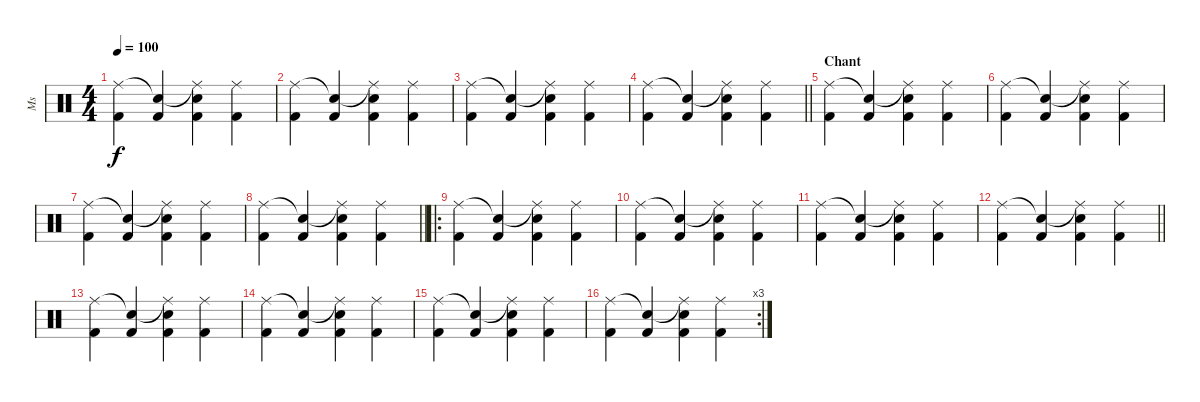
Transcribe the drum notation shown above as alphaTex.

\track ("Ms" "Ms") {instrument percussion}
\staff {score}
\articulation defaults
\ts (4 4)
\tempo 100
\clef neutral
\ks c
("Ride (middle)" "Kick (hit) 2").4{dy f} ("Snare (hit)"{t} "Kick (hit) 2").4 ("Ride (middle)"{t} "Electric Snare (hit)" "Kick (hit) 2").4 ("Ride (middle)" "Kick (hit) 2").4 |
("Ride (middle)" "Kick (hit) 2").4 ("Snare (hit)"{t} "Kick (hit) 2").4 ("Ride (middle)"{t} "Electric Snare (hit)" "Kick (hit) 2").4 ("Ride (middle)" "Kick (hit) 2").4 |
("Ride (middle)" "Kick (hit) 2").4 ("Snare (hit)"{t} "Kick (hit) 2").4 ("Ride (middle)"{t} "Electric Snare (hit)" "Kick (hit) 2").4 ("Ride (middle)" "Kick (hit) 2").4 |
\barLineRight lightlight
("Ride (middle)" "Kick (hit) 2").4 ("Snare (hit)"{t} "Kick (hit) 2").4 ("Ride (middle)"{t} "Electric Snare (hit)" "Kick (hit) 2").4 ("Ride (middle)" "Kick (hit) 2").4 |
\section ("" "Chant")
("Ride (middle)" "Kick (hit) 2").4 ("Snare (hit)"{t} "Kick (hit) 2").4 ("Ride (middle)"{t} "Electric Snare (hit)" "Kick (hit) 2").4 ("Ride (middle)" "Kick (hit) 2").4 |
("Ride (middle)" "Kick (hit) 2").4 ("Snare (hit)"{t} "Kick (hit) 2").4 ("Ride (middle)"{t} "Electric Snare (hit)" "Kick (hit) 2").4 ("Ride (middle)" "Kick (hit) 2").4 |
("Ride (middle)" "Kick (hit) 2").4 ("Snare (hit)"{t} "Kick (hit) 2").4 ("Ride (middle)"{t} "Electric Snare (hit)" "Kick (hit) 2").4 ("Ride (middle)" "Kick (hit) 2").4 |
\barLineRight lightlight
("Ride (middle)" "Kick (hit) 2").4 ("Snare (hit)"{t} "Kick (hit) 2").4 ("Ride (middle)"{t} "Electric Snare (hit)" "Kick (hit) 2").4 ("Ride (middle)" "Kick (hit) 2").4 |
\ro
("Ride (middle)" "Kick (hit) 2").4 ("Snare (hit)"{t} "Kick (hit) 2").4 ("Ride (middle)"{t} "Electric Snare (hit)" "Kick (hit) 2").4 ("Ride (middle)" "Kick (hit) 2").4 |
("Ride (middle)" "Kick (hit) 2").4 ("Snare (hit)"{t} "Kick (hit) 2").4 ("Ride (middle)"{t} "Electric Snare (hit)" "Kick (hit) 2").4 ("Ride (middle)" "Kick (hit) 2").4 |
("Ride (middle)" "Kick (hit) 2").4 ("Snare (hit)"{t} "Kick (hit) 2").4 ("Ride (middle)"{t} "Electric Snare (hit)" "Kick (hit) 2").4 ("Ride (middle)" "Kick (hit) 2").4 |
\barLineRight lightlight
("Ride (middle)" "Kick (hit) 2").4 ("Snare (hit)"{t} "Kick (hit) 2").4 ("Ride (middle)"{t} "Electric Snare (hit)" "Kick (hit) 2").4 ("Ride (middle)" "Kick (hit) 2").4 |
("Ride (middle)" "Kick (hit) 2").4 ("Snare (hit)"{t} "Kick (hit) 2").4 ("Ride (middle)"{t} "Electric Snare (hit)" "Kick (hit) 2").4 ("Ride (middle)" "Kick (hit) 2").4 |
("Ride (middle)" "Kick (hit) 2").4 ("Snare (hit)"{t} "Kick (hit) 2").4 ("Ride (middle)"{t} "Electric Snare (hit)" "Kick (hit) 2").4 ("Ride (middle)" "Kick (hit) 2").4 |
("Ride (middle)" "Kick (hit) 2").4 ("Snare (hit)"{t} "Kick (hit) 2").4 ("Ride (middle)"{t} "Electric Snare (hit)" "Kick (hit) 2").4 ("Ride (middle)" "Kick (hit) 2").4 |
\rc 3
("Ride (middle)" "Kick (hit) 2").4 ("Snare (hit)"{t} "Kick (hit) 2").4 ("Ride (middle)"{t} "Electric Snare (hit)" "Kick (hit) 2").4 ("Ride (middle)" "Kick (hit) 2").4
